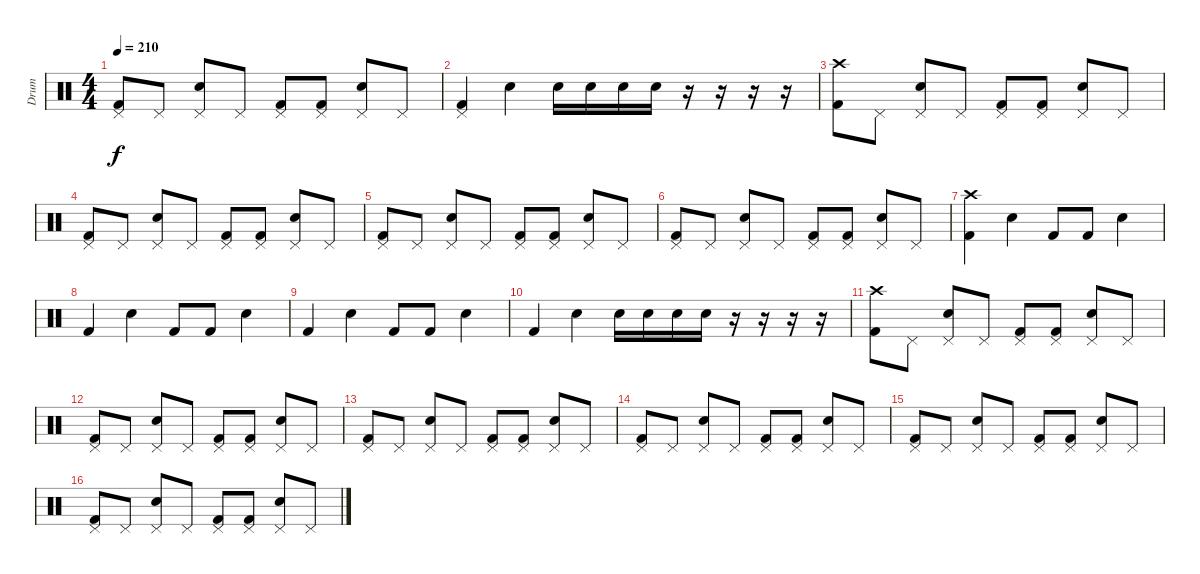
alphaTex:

\track ("Drum" "Drum") {instrument percussion}
\staff {score}
\articulation defaults
\ts (4 4)
\tempo 210
\clef neutral
\ks c
("Pedal Hi-Hat (hit)" "Kick (hit) 2").8{dy f} "Pedal Hi-Hat (hit)".8 ("Pedal Hi-Hat (hit)" "Snare (hit) 2").8 "Pedal Hi-Hat (hit)".8 ("Pedal Hi-Hat (hit)" "Kick (hit) 2").8 ("Pedal Hi-Hat (hit)" "Kick (hit) 2").8 ("Pedal Hi-Hat (hit)" "Snare (hit) 2").8 "Pedal Hi-Hat (hit)".8 |
("Pedal Hi-Hat (hit)" "Kick (hit) 2").4 "Snare (hit) 2".4 "Snare (hit) 2".16 "Snare (hit) 2".16 "Snare (hit) 2".16 "Snare (hit) 2".16 r.16 r.16 r.16 r.16 |
("Crash high (hit)" "Kick (hit) 2").8 "Pedal Hi-Hat (hit)".8 ("Pedal Hi-Hat (hit)" "Snare (hit) 2").8 "Pedal Hi-Hat (hit)".8 ("Pedal Hi-Hat (hit)" "Kick (hit) 2").8 ("Pedal Hi-Hat (hit)" "Kick (hit) 2").8 ("Pedal Hi-Hat (hit)" "Snare (hit) 2").8 "Pedal Hi-Hat (hit)".8 |
("Pedal Hi-Hat (hit)" "Kick (hit) 2").8 "Pedal Hi-Hat (hit)".8 ("Pedal Hi-Hat (hit)" "Snare (hit) 2").8 "Pedal Hi-Hat (hit)".8 ("Pedal Hi-Hat (hit)" "Kick (hit) 2").8 ("Pedal Hi-Hat (hit)" "Kick (hit) 2").8 ("Pedal Hi-Hat (hit)" "Snare (hit) 2").8 "Pedal Hi-Hat (hit)".8 |
("Pedal Hi-Hat (hit)" "Kick (hit) 2").8 "Pedal Hi-Hat (hit)".8 ("Pedal Hi-Hat (hit)" "Snare (hit) 2").8 "Pedal Hi-Hat (hit)".8 ("Pedal Hi-Hat (hit)" "Kick (hit) 2").8 ("Pedal Hi-Hat (hit)" "Kick (hit) 2").8 ("Pedal Hi-Hat (hit)" "Snare (hit) 2").8 "Pedal Hi-Hat (hit)".8 |
("Pedal Hi-Hat (hit)" "Kick (hit) 2").8 "Pedal Hi-Hat (hit)".8 ("Pedal Hi-Hat (hit)" "Snare (hit) 2").8 "Pedal Hi-Hat (hit)".8 ("Pedal Hi-Hat (hit)" "Kick (hit) 2").8 ("Pedal Hi-Hat (hit)" "Kick (hit) 2").8 ("Pedal Hi-Hat (hit)" "Snare (hit) 2").8 "Pedal Hi-Hat (hit)".8 |
("Crash high (hit)" "Kick (hit) 2").4 "Snare (hit) 2".4 "Kick (hit) 2".8 "Kick (hit) 2".8 "Snare (hit) 2".4 |
"Kick (hit) 2".4 "Snare (hit) 2".4 "Kick (hit) 2".8 "Kick (hit) 2".8 "Snare (hit) 2".4 |
"Kick (hit) 2".4 "Snare (hit) 2".4 "Kick (hit) 2".8 "Kick (hit) 2".8 "Snare (hit) 2".4 |
"Kick (hit) 2".4 "Snare (hit) 2".4 "Snare (hit) 2".16 "Snare (hit) 2".16 "Snare (hit) 2".16 "Snare (hit) 2".16 r.16 r.16 r.16 r.16 |
("Crash high (hit)" "Kick (hit) 2").8 "Pedal Hi-Hat (hit)".8 ("Pedal Hi-Hat (hit)" "Snare (hit) 2").8 "Pedal Hi-Hat (hit)".8 ("Pedal Hi-Hat (hit)" "Kick (hit) 2").8 ("Pedal Hi-Hat (hit)" "Kick (hit) 2").8 ("Pedal Hi-Hat (hit)" "Snare (hit) 2").8 "Pedal Hi-Hat (hit)".8 |
("Pedal Hi-Hat (hit)" "Kick (hit) 2").8 "Pedal Hi-Hat (hit)".8 ("Pedal Hi-Hat (hit)" "Snare (hit) 2").8 "Pedal Hi-Hat (hit)".8 ("Pedal Hi-Hat (hit)" "Kick (hit) 2").8 ("Pedal Hi-Hat (hit)" "Kick (hit) 2").8 ("Pedal Hi-Hat (hit)" "Snare (hit) 2").8 "Pedal Hi-Hat (hit)".8 |
("Pedal Hi-Hat (hit)" "Kick (hit) 2").8 "Pedal Hi-Hat (hit)".8 ("Pedal Hi-Hat (hit)" "Snare (hit) 2").8 "Pedal Hi-Hat (hit)".8 ("Pedal Hi-Hat (hit)" "Kick (hit) 2").8 ("Pedal Hi-Hat (hit)" "Kick (hit) 2").8 ("Pedal Hi-Hat (hit)" "Snare (hit) 2").8 "Pedal Hi-Hat (hit)".8 |
("Pedal Hi-Hat (hit)" "Kick (hit) 2").8 "Pedal Hi-Hat (hit)".8 ("Pedal Hi-Hat (hit)" "Snare (hit) 2").8 "Pedal Hi-Hat (hit)".8 ("Pedal Hi-Hat (hit)" "Kick (hit) 2").8 ("Pedal Hi-Hat (hit)" "Kick (hit) 2").8 ("Pedal Hi-Hat (hit)" "Snare (hit) 2").8 "Pedal Hi-Hat (hit)".8 |
("Pedal Hi-Hat (hit)" "Kick (hit) 2").8 "Pedal Hi-Hat (hit)".8 ("Pedal Hi-Hat (hit)" "Snare (hit) 2").8 "Pedal Hi-Hat (hit)".8 ("Pedal Hi-Hat (hit)" "Kick (hit) 2").8 ("Pedal Hi-Hat (hit)" "Kick (hit) 2").8 ("Pedal Hi-Hat (hit)" "Snare (hit) 2").8 "Pedal Hi-Hat (hit)".8 |
("Pedal Hi-Hat (hit)" "Kick (hit) 2").8 "Pedal Hi-Hat (hit)".8 ("Pedal Hi-Hat (hit)" "Snare (hit) 2").8 "Pedal Hi-Hat (hit)".8 ("Pedal Hi-Hat (hit)" "Kick (hit) 2").8 ("Pedal Hi-Hat (hit)" "Kick (hit) 2").8 ("Pedal Hi-Hat (hit)" "Snare (hit) 2").8 "Pedal Hi-Hat (hit)".8
